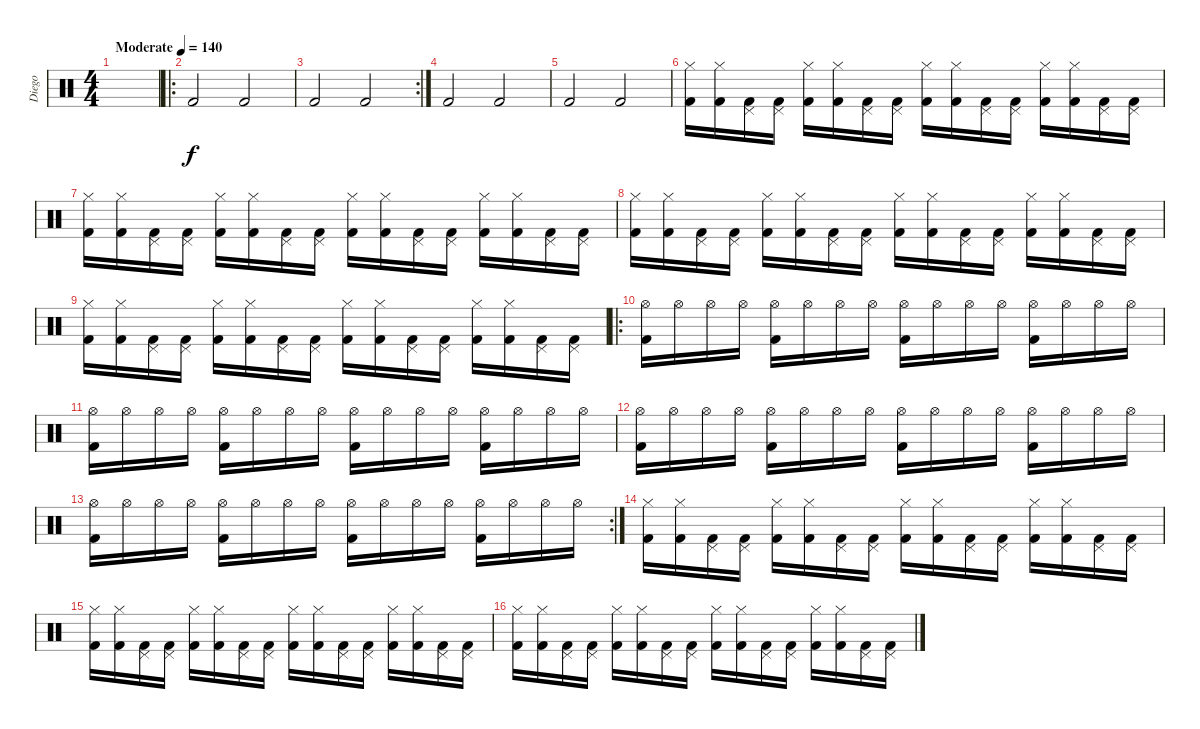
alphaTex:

\track ("Diego" "Diego") {instrument percussion}
\staff {score}
\articulation defaults
\ts (4 4)
\tempo (140 "Moderate")
\clef neutral
\ks c
|
\ro "Kick (hit) 2".2 "Kick (hit) 2".2
|
\rc 2 "Kick (hit) 2".2 "Kick (hit) 2".2
|
"Kick (hit) 2".2 "Kick (hit) 2".2 |
"Kick (hit) 2".2 "Kick (hit) 2".2 |
("Hi-Hat (closed)" "Kick (hit) 2").16 ("Hi-Hat (closed)" "Kick (hit) 2").16 ("Pedal Hi-Hat (hit)" "Kick (hit) 2").16 ("Pedal Hi-Hat (hit)" "Kick (hit) 2").16 ("Hi-Hat (closed)" "Kick (hit) 2").16 ("Hi-Hat (closed)" "Kick (hit) 2").16 ("Pedal Hi-Hat (hit)" "Kick (hit) 2").16 ("Pedal Hi-Hat (hit)" "Kick (hit) 2").16 ("Hi-Hat (closed)" "Kick (hit) 2").16 ("Hi-Hat (closed)" "Kick (hit) 2").16 ("Pedal Hi-Hat (hit)" "Kick (hit) 2").16 ("Pedal Hi-Hat (hit)" "Kick (hit) 2").16 ("Hi-Hat (closed)" "Kick (hit) 2").16 ("Hi-Hat (closed)" "Kick (hit) 2").16 ("Pedal Hi-Hat (hit)" "Kick (hit) 2").16 ("Pedal Hi-Hat (hit)" "Kick (hit) 2").16 |
("Hi-Hat (closed)" "Kick (hit) 2").16 ("Hi-Hat (closed)" "Kick (hit) 2").16 ("Pedal Hi-Hat (hit)" "Kick (hit) 2").16 ("Pedal Hi-Hat (hit)" "Kick (hit) 2").16 ("Hi-Hat (closed)" "Kick (hit) 2").16 ("Hi-Hat (closed)" "Kick (hit) 2").16 ("Pedal Hi-Hat (hit)" "Kick (hit) 2").16 ("Pedal Hi-Hat (hit)" "Kick (hit) 2").16 ("Hi-Hat (closed)" "Kick (hit) 2").16 ("Hi-Hat (closed)" "Kick (hit) 2").16 ("Pedal Hi-Hat (hit)" "Kick (hit) 2").16 ("Pedal Hi-Hat (hit)" "Kick (hit) 2").16 ("Hi-Hat (closed)" "Kick (hit) 2").16 ("Hi-Hat (closed)" "Kick (hit) 2").16 ("Pedal Hi-Hat (hit)" "Kick (hit) 2").16 ("Pedal Hi-Hat (hit)" "Kick (hit) 2").16 |
("Hi-Hat (closed)" "Kick (hit) 2").16 ("Hi-Hat (closed)" "Kick (hit) 2").16 ("Pedal Hi-Hat (hit)" "Kick (hit) 2").16 ("Pedal Hi-Hat (hit)" "Kick (hit) 2").16 ("Hi-Hat (closed)" "Kick (hit) 2").16 ("Hi-Hat (closed)" "Kick (hit) 2").16 ("Pedal Hi-Hat (hit)" "Kick (hit) 2").16 ("Pedal Hi-Hat (hit)" "Kick (hit) 2").16 ("Hi-Hat (closed)" "Kick (hit) 2").16 ("Hi-Hat (closed)" "Kick (hit) 2").16 ("Pedal Hi-Hat (hit)" "Kick (hit) 2").16 ("Pedal Hi-Hat (hit)" "Kick (hit) 2").16 ("Hi-Hat (closed)" "Kick (hit) 2").16 ("Hi-Hat (closed)" "Kick (hit) 2").16 ("Pedal Hi-Hat (hit)" "Kick (hit) 2").16 ("Pedal Hi-Hat (hit)" "Kick (hit) 2").16 |
("Hi-Hat (closed)" "Kick (hit) 2").16 ("Hi-Hat (closed)" "Kick (hit) 2").16 ("Pedal Hi-Hat (hit)" "Kick (hit) 2").16 ("Pedal Hi-Hat (hit)" "Kick (hit) 2").16 ("Hi-Hat (closed)" "Kick (hit) 2").16 ("Hi-Hat (closed)" "Kick (hit) 2").16 ("Pedal Hi-Hat (hit)" "Kick (hit) 2").16 ("Pedal Hi-Hat (hit)" "Kick (hit) 2").16 ("Hi-Hat (closed)" "Kick (hit) 2").16 ("Hi-Hat (closed)" "Kick (hit) 2").16 ("Pedal Hi-Hat (hit)" "Kick (hit) 2").16 ("Pedal Hi-Hat (hit)" "Kick (hit) 2").16 ("Hi-Hat (closed)" "Kick (hit) 2").16 ("Hi-Hat (closed)" "Kick (hit) 2").16 ("Pedal Hi-Hat (hit)" "Kick (hit) 2").16 ("Pedal Hi-Hat (hit)" "Kick (hit) 2").16 |
\ro
("Hi-Hat (open)" "Kick (hit) 2").16 "Hi-Hat (open)".16 "Hi-Hat (open)".16 "Hi-Hat (open)".16 ("Hi-Hat (open)" "Kick (hit) 2").16 "Hi-Hat (open)".16 "Hi-Hat (open)".16 "Hi-Hat (open)".16 ("Hi-Hat (open)" "Kick (hit) 2").16 "Hi-Hat (open)".16 "Hi-Hat (open)".16 "Hi-Hat (open)".16 ("Hi-Hat (open)" "Kick (hit) 2").16 "Hi-Hat (open)".16 "Hi-Hat (open)".16 "Hi-Hat (open)".16 |
("Hi-Hat (open)" "Kick (hit) 2").16 "Hi-Hat (open)".16 "Hi-Hat (open)".16 "Hi-Hat (open)".16 ("Hi-Hat (open)" "Kick (hit) 2").16 "Hi-Hat (open)".16 "Hi-Hat (open)".16 "Hi-Hat (open)".16 ("Hi-Hat (open)" "Kick (hit) 2").16 "Hi-Hat (open)".16 "Hi-Hat (open)".16 "Hi-Hat (open)".16 ("Hi-Hat (open)" "Kick (hit) 2").16 "Hi-Hat (open)".16 "Hi-Hat (open)".16 "Hi-Hat (open)".16 |
("Hi-Hat (open)" "Kick (hit) 2").16 "Hi-Hat (open)".16 "Hi-Hat (open)".16 "Hi-Hat (open)".16 ("Hi-Hat (open)" "Kick (hit) 2").16 "Hi-Hat (open)".16 "Hi-Hat (open)".16 "Hi-Hat (open)".16 ("Hi-Hat (open)" "Kick (hit) 2").16 "Hi-Hat (open)".16 "Hi-Hat (open)".16 "Hi-Hat (open)".16 ("Hi-Hat (open)" "Kick (hit) 2").16 "Hi-Hat (open)".16 "Hi-Hat (open)".16 "Hi-Hat (open)".16 |
\rc 2
("Hi-Hat (open)" "Kick (hit) 2").16 "Hi-Hat (open)".16 "Hi-Hat (open)".16 "Hi-Hat (open)".16 ("Hi-Hat (open)" "Kick (hit) 2").16 "Hi-Hat (open)".16 "Hi-Hat (open)".16 "Hi-Hat (open)".16 ("Hi-Hat (open)" "Kick (hit) 2").16 "Hi-Hat (open)".16 "Hi-Hat (open)".16 "Hi-Hat (open)".16 ("Hi-Hat (open)" "Kick (hit) 2").16 "Hi-Hat (open)".16 "Hi-Hat (open)".16 "Hi-Hat (open)".16 |
("Hi-Hat (closed)" "Kick (hit) 2").16 ("Hi-Hat (closed)" "Kick (hit) 2").16 ("Pedal Hi-Hat (hit)" "Kick (hit) 2").16 ("Pedal Hi-Hat (hit)" "Kick (hit) 2").16 ("Hi-Hat (closed)" "Kick (hit) 2").16 ("Hi-Hat (closed)" "Kick (hit) 2").16 ("Pedal Hi-Hat (hit)" "Kick (hit) 2").16 ("Pedal Hi-Hat (hit)" "Kick (hit) 2").16 ("Hi-Hat (closed)" "Kick (hit) 2").16 ("Hi-Hat (closed)" "Kick (hit) 2").16 ("Pedal Hi-Hat (hit)" "Kick (hit) 2").16 ("Pedal Hi-Hat (hit)" "Kick (hit) 2").16 ("Hi-Hat (closed)" "Kick (hit) 2").16 ("Hi-Hat (closed)" "Kick (hit) 2").16 ("Pedal Hi-Hat (hit)" "Kick (hit) 2").16 ("Pedal Hi-Hat (hit)" "Kick (hit) 2").16 |
("Hi-Hat (closed)" "Kick (hit) 2").16 ("Hi-Hat (closed)" "Kick (hit) 2").16 ("Pedal Hi-Hat (hit)" "Kick (hit) 2").16 ("Pedal Hi-Hat (hit)" "Kick (hit) 2").16 ("Hi-Hat (closed)" "Kick (hit) 2").16 ("Hi-Hat (closed)" "Kick (hit) 2").16 ("Pedal Hi-Hat (hit)" "Kick (hit) 2").16 ("Pedal Hi-Hat (hit)" "Kick (hit) 2").16 ("Hi-Hat (closed)" "Kick (hit) 2").16 ("Hi-Hat (closed)" "Kick (hit) 2").16 ("Pedal Hi-Hat (hit)" "Kick (hit) 2").16 ("Pedal Hi-Hat (hit)" "Kick (hit) 2").16 ("Hi-Hat (closed)" "Kick (hit) 2").16 ("Hi-Hat (closed)" "Kick (hit) 2").16 ("Pedal Hi-Hat (hit)" "Kick (hit) 2").16 ("Pedal Hi-Hat (hit)" "Kick (hit) 2").16 |
("Hi-Hat (closed)" "Kick (hit) 2").16 ("Hi-Hat (closed)" "Kick (hit) 2").16 ("Pedal Hi-Hat (hit)" "Kick (hit) 2").16 ("Pedal Hi-Hat (hit)" "Kick (hit) 2").16 ("Hi-Hat (closed)" "Kick (hit) 2").16 ("Hi-Hat (closed)" "Kick (hit) 2").16 ("Pedal Hi-Hat (hit)" "Kick (hit) 2").16 ("Pedal Hi-Hat (hit)" "Kick (hit) 2").16 ("Hi-Hat (closed)" "Kick (hit) 2").16 ("Hi-Hat (closed)" "Kick (hit) 2").16 ("Pedal Hi-Hat (hit)" "Kick (hit) 2").16 ("Pedal Hi-Hat (hit)" "Kick (hit) 2").16 ("Hi-Hat (closed)" "Kick (hit) 2").16 ("Hi-Hat (closed)" "Kick (hit) 2").16 ("Pedal Hi-Hat (hit)" "Kick (hit) 2").16 ("Pedal Hi-Hat (hit)" "Kick (hit) 2").16
